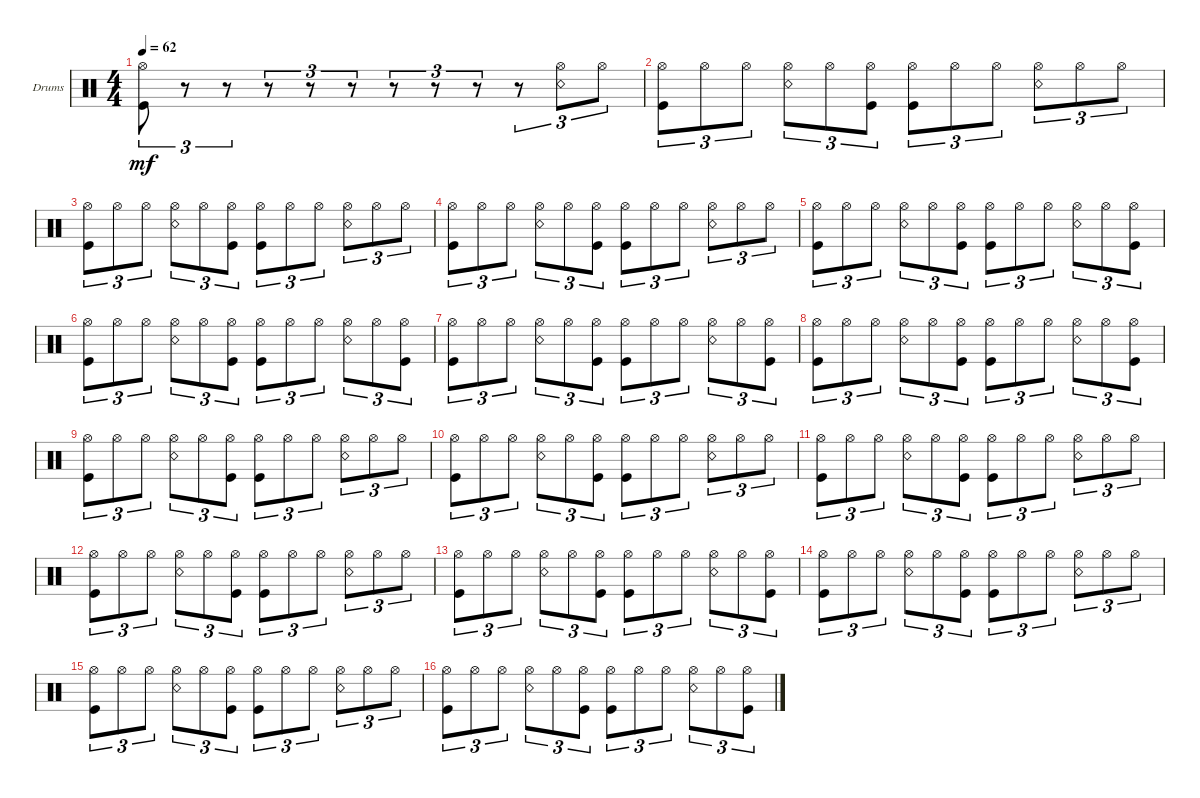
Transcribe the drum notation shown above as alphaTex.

\defaultSystemsLayout 4
\bracketExtendMode groupsimilarinstruments
\firstSystemTrackNameOrientation horizontal
\otherSystemsTrackNameOrientation horizontal
\track ("Drumkit" "Drums") {instrument percussion}
\staff {score}
\articulation defaults
\ts (4 4)
\tempo 62
\clef neutral
\ks c
("Hi-Hat (open)" "Kick (hit)").8{tu (3 2) dy mf} r.8{tu (3 2)} r.8{tu (3 2)} r.8{tu (3 2)} r.8{tu (3 2)} r.8{tu (3 2)} r.8{tu (3 2)} r.8{tu (3 2)} r.8{tu (3 2)} r.8{tu (3 2)} ("Hi-Hat (open)" "Snare (rim shot)").8{tu (3 2)} "Hi-Hat (open)".8{tu (3 2)} |
("Hi-Hat (open)" "Kick (hit)").8{tu (3 2)} "Hi-Hat (open)".8{tu (3 2)} "Hi-Hat (open)".8{tu (3 2)} ("Hi-Hat (open)" "Snare (rim shot)").8{tu (3 2)} "Hi-Hat (open)".8{tu (3 2)} ("Hi-Hat (open)" "Kick (hit)").8{tu (3 2)} ("Hi-Hat (open)" "Kick (hit)").8{tu (3 2)} "Hi-Hat (open)".8{tu (3 2)} "Hi-Hat (open)".8{tu (3 2)} ("Hi-Hat (open)" "Snare (rim shot)").8{tu (3 2)} "Hi-Hat (open)".8{tu (3 2)} "Hi-Hat (open)".8{tu (3 2)} |
("Hi-Hat (open)" "Kick (hit)").8{tu (3 2)} "Hi-Hat (open)".8{tu (3 2)} "Hi-Hat (open)".8{tu (3 2)} ("Hi-Hat (open)" "Snare (rim shot)").8{tu (3 2)} "Hi-Hat (open)".8{tu (3 2)} ("Hi-Hat (open)" "Kick (hit)").8{tu (3 2)} ("Hi-Hat (open)" "Kick (hit)").8{tu (3 2)} "Hi-Hat (open)".8{tu (3 2)} "Hi-Hat (open)".8{tu (3 2)} ("Hi-Hat (open)" "Snare (rim shot)").8{tu (3 2)} "Hi-Hat (open)".8{tu (3 2)} "Hi-Hat (open)".8{tu (3 2)} |
("Hi-Hat (open)" "Kick (hit)").8{tu (3 2)} "Hi-Hat (open)".8{tu (3 2)} "Hi-Hat (open)".8{tu (3 2)} ("Hi-Hat (open)" "Snare (rim shot)").8{tu (3 2)} "Hi-Hat (open)".8{tu (3 2)} ("Hi-Hat (open)" "Kick (hit)").8{tu (3 2)} ("Hi-Hat (open)" "Kick (hit)").8{tu (3 2)} "Hi-Hat (open)".8{tu (3 2)} "Hi-Hat (open)".8{tu (3 2)} ("Hi-Hat (open)" "Snare (rim shot)").8{tu (3 2)} "Hi-Hat (open)".8{tu (3 2)} "Hi-Hat (open)".8{tu (3 2)} |
("Hi-Hat (open)" "Kick (hit)").8{tu (3 2)} "Hi-Hat (open)".8{tu (3 2)} "Hi-Hat (open)".8{tu (3 2)} ("Hi-Hat (open)" "Snare (rim shot)").8{tu (3 2)} "Hi-Hat (open)".8{tu (3 2)} ("Hi-Hat (open)" "Kick (hit)").8{tu (3 2)} ("Hi-Hat (open)" "Kick (hit)").8{tu (3 2)} "Hi-Hat (open)".8{tu (3 2)} "Hi-Hat (open)".8{tu (3 2)} ("Hi-Hat (open)" "Snare (rim shot)").8{tu (3 2)} "Hi-Hat (open)".8{tu (3 2)} ("Hi-Hat (open)" "Kick (hit)").8{tu (3 2)} |
("Hi-Hat (open)" "Kick (hit)").8{tu (3 2)} "Hi-Hat (open)".8{tu (3 2)} "Hi-Hat (open)".8{tu (3 2)} ("Hi-Hat (open)" "Snare (rim shot)").8{tu (3 2)} "Hi-Hat (open)".8{tu (3 2)} ("Hi-Hat (open)" "Kick (hit)").8{tu (3 2)} ("Hi-Hat (open)" "Kick (hit)").8{tu (3 2)} "Hi-Hat (open)".8{tu (3 2)} "Hi-Hat (open)".8{tu (3 2)} ("Hi-Hat (open)" "Snare (rim shot)").8{tu (3 2)} "Hi-Hat (open)".8{tu (3 2)} ("Hi-Hat (open)" "Kick (hit)").8{tu (3 2)} |
("Hi-Hat (open)" "Kick (hit)").8{tu (3 2)} "Hi-Hat (open)".8{tu (3 2)} "Hi-Hat (open)".8{tu (3 2)} ("Hi-Hat (open)" "Snare (rim shot)").8{tu (3 2)} "Hi-Hat (open)".8{tu (3 2)} ("Hi-Hat (open)" "Kick (hit)").8{tu (3 2)} ("Hi-Hat (open)" "Kick (hit)").8{tu (3 2)} "Hi-Hat (open)".8{tu (3 2)} "Hi-Hat (open)".8{tu (3 2)} ("Hi-Hat (open)" "Snare (rim shot)").8{tu (3 2)} "Hi-Hat (open)".8{tu (3 2)} ("Hi-Hat (open)" "Kick (hit)").8{tu (3 2)} |
("Hi-Hat (open)" "Kick (hit)").8{tu (3 2)} "Hi-Hat (open)".8{tu (3 2)} "Hi-Hat (open)".8{tu (3 2)} ("Hi-Hat (open)" "Snare (rim shot)").8{tu (3 2)} "Hi-Hat (open)".8{tu (3 2)} ("Hi-Hat (open)" "Kick (hit)").8{tu (3 2)} ("Hi-Hat (open)" "Kick (hit)").8{tu (3 2)} "Hi-Hat (open)".8{tu (3 2)} "Hi-Hat (open)".8{tu (3 2)} ("Hi-Hat (open)" "Snare (rim shot)").8{tu (3 2)} "Hi-Hat (open)".8{tu (3 2)} ("Hi-Hat (open)" "Kick (hit)").8{tu (3 2)} |
("Hi-Hat (open)" "Kick (hit)").8{tu (3 2)} "Hi-Hat (open)".8{tu (3 2)} "Hi-Hat (open)".8{tu (3 2)} ("Hi-Hat (open)" "Snare (rim shot)").8{tu (3 2)} "Hi-Hat (open)".8{tu (3 2)} ("Hi-Hat (open)" "Kick (hit)").8{tu (3 2)} ("Hi-Hat (open)" "Kick (hit)").8{tu (3 2)} "Hi-Hat (open)".8{tu (3 2)} "Hi-Hat (open)".8{tu (3 2)} ("Hi-Hat (open)" "Snare (rim shot)").8{tu (3 2)} "Hi-Hat (open)".8{tu (3 2)} "Hi-Hat (open)".8{tu (3 2)} |
("Hi-Hat (open)" "Kick (hit)").8{tu (3 2)} "Hi-Hat (open)".8{tu (3 2)} "Hi-Hat (open)".8{tu (3 2)} ("Hi-Hat (open)" "Snare (rim shot)").8{tu (3 2)} "Hi-Hat (open)".8{tu (3 2)} ("Hi-Hat (open)" "Kick (hit)").8{tu (3 2)} ("Hi-Hat (open)" "Kick (hit)").8{tu (3 2)} "Hi-Hat (open)".8{tu (3 2)} "Hi-Hat (open)".8{tu (3 2)} ("Hi-Hat (open)" "Snare (rim shot)").8{tu (3 2)} "Hi-Hat (open)".8{tu (3 2)} "Hi-Hat (open)".8{tu (3 2)} |
("Hi-Hat (open)" "Kick (hit)").8{tu (3 2)} "Hi-Hat (open)".8{tu (3 2)} "Hi-Hat (open)".8{tu (3 2)} ("Hi-Hat (open)" "Snare (rim shot)").8{tu (3 2)} "Hi-Hat (open)".8{tu (3 2)} ("Hi-Hat (open)" "Kick (hit)").8{tu (3 2)} ("Hi-Hat (open)" "Kick (hit)").8{tu (3 2)} "Hi-Hat (open)".8{tu (3 2)} "Hi-Hat (open)".8{tu (3 2)} ("Hi-Hat (open)" "Snare (rim shot)").8{tu (3 2)} "Hi-Hat (open)".8{tu (3 2)} "Hi-Hat (open)".8{tu (3 2)} |
("Hi-Hat (open)" "Kick (hit)").8{tu (3 2)} "Hi-Hat (open)".8{tu (3 2)} "Hi-Hat (open)".8{tu (3 2)} ("Hi-Hat (open)" "Snare (rim shot)").8{tu (3 2)} "Hi-Hat (open)".8{tu (3 2)} ("Hi-Hat (open)" "Kick (hit)").8{tu (3 2)} ("Hi-Hat (open)" "Kick (hit)").8{tu (3 2)} "Hi-Hat (open)".8{tu (3 2)} "Hi-Hat (open)".8{tu (3 2)} ("Hi-Hat (open)" "Snare (rim shot)").8{tu (3 2)} "Hi-Hat (open)".8{tu (3 2)} "Hi-Hat (open)".8{tu (3 2)} |
("Hi-Hat (open)" "Kick (hit)").8{tu (3 2)} "Hi-Hat (open)".8{tu (3 2)} "Hi-Hat (open)".8{tu (3 2)} ("Hi-Hat (open)" "Snare (rim shot)").8{tu (3 2)} "Hi-Hat (open)".8{tu (3 2)} ("Hi-Hat (open)" "Kick (hit)").8{tu (3 2)} ("Hi-Hat (open)" "Kick (hit)").8{tu (3 2)} "Hi-Hat (open)".8{tu (3 2)} "Hi-Hat (open)".8{tu (3 2)} ("Hi-Hat (open)" "Snare (rim shot)").8{tu (3 2)} "Hi-Hat (open)".8{tu (3 2)} ("Hi-Hat (open)" "Kick (hit)").8{tu (3 2)} |
("Hi-Hat (open)" "Kick (hit)").8{tu (3 2)} "Hi-Hat (open)".8{tu (3 2)} "Hi-Hat (open)".8{tu (3 2)} ("Hi-Hat (open)" "Snare (rim shot)").8{tu (3 2)} "Hi-Hat (open)".8{tu (3 2)} ("Hi-Hat (open)" "Kick (hit)").8{tu (3 2)} ("Hi-Hat (open)" "Kick (hit)").8{tu (3 2)} "Hi-Hat (open)".8{tu (3 2)} "Hi-Hat (open)".8{tu (3 2)} ("Hi-Hat (open)" "Snare (rim shot)").8{tu (3 2)} "Hi-Hat (open)".8{tu (3 2)} "Hi-Hat (open)".8{tu (3 2)} |
("Hi-Hat (open)" "Kick (hit)").8{tu (3 2)} "Hi-Hat (open)".8{tu (3 2)} "Hi-Hat (open)".8{tu (3 2)} ("Hi-Hat (open)" "Snare (rim shot)").8{tu (3 2)} "Hi-Hat (open)".8{tu (3 2)} ("Hi-Hat (open)" "Kick (hit)").8{tu (3 2)} ("Hi-Hat (open)" "Kick (hit)").8{tu (3 2)} "Hi-Hat (open)".8{tu (3 2)} "Hi-Hat (open)".8{tu (3 2)} ("Hi-Hat (open)" "Snare (rim shot)").8{tu (3 2)} "Hi-Hat (open)".8{tu (3 2)} "Hi-Hat (open)".8{tu (3 2)} |
("Hi-Hat (open)" "Kick (hit)").8{tu (3 2)} "Hi-Hat (open)".8{tu (3 2)} "Hi-Hat (open)".8{tu (3 2)} ("Hi-Hat (open)" "Snare (rim shot)").8{tu (3 2)} "Hi-Hat (open)".8{tu (3 2)} ("Hi-Hat (open)" "Kick (hit)").8{tu (3 2)} ("Hi-Hat (open)" "Kick (hit)").8{tu (3 2)} "Hi-Hat (open)".8{tu (3 2)} "Hi-Hat (open)".8{tu (3 2)} ("Hi-Hat (open)" "Snare (rim shot)").8{tu (3 2)} "Hi-Hat (open)".8{tu (3 2)} ("Hi-Hat (open)" "Kick (hit)").8{tu (3 2)}
